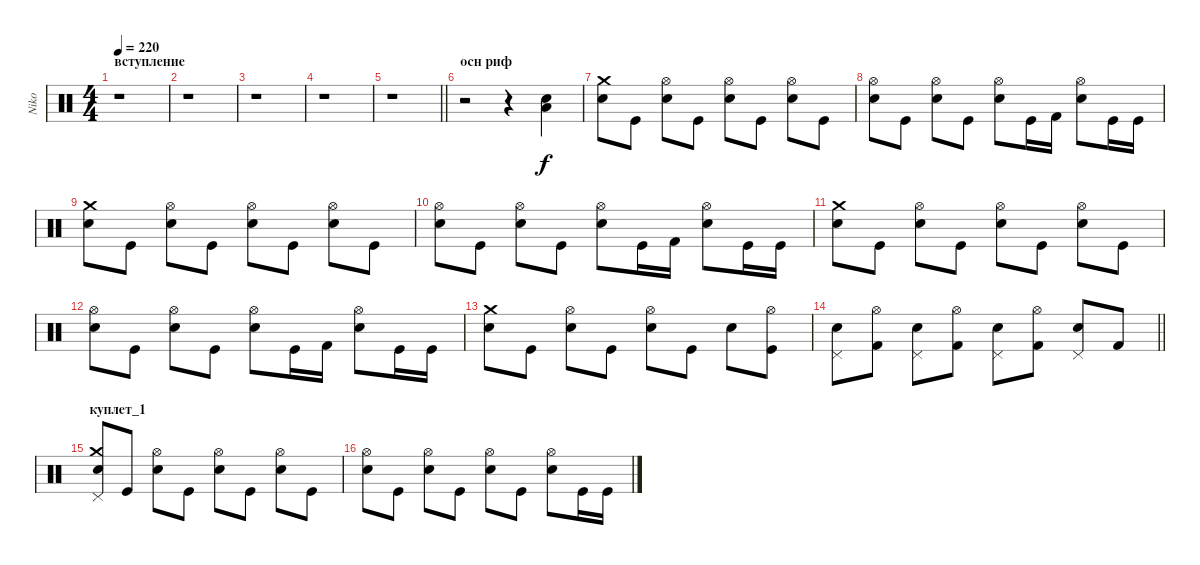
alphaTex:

\track ("Niko" "Niko") {instrument percussion}
\staff {score}
\articulation defaults
\ts (4 4)
\section ("" "вступление")
\tempo 220
\clef neutral
\ks c
r.1{dy f} |
r.1 |
r.1 |
r.1 |
\barLineRight lightlight
r.1 |
\section ("" "осн риф")
r.2 r.4 ("Snare (hit) 2" "Low Floor Tom (hit)").4 |
("Crash medium (hit)" "Snare (hit) 2").8 "Kick (hit)".8 ("Hi-Hat (open)" "Snare (hit) 2").8 "Kick (hit)".8 ("Hi-Hat (open)" "Snare (hit) 2").8 "Kick (hit)".8 ("Hi-Hat (open)" "Snare (hit) 2").8 "Kick (hit)".8 |
("Hi-Hat (open)" "Snare (hit) 2").8 "Kick (hit)".8 ("Hi-Hat (open)" "Snare (hit) 2").8 "Kick (hit)".8 ("Hi-Hat (open)" "Snare (hit) 2").8 "Kick (hit)".16 "Kick (hit) 2".16 ("Hi-Hat (open)" "Snare (hit) 2").8 "Kick (hit)".16 "Kick (hit)".16 |
("Crash medium (hit)" "Snare (hit) 2").8 "Kick (hit)".8 ("Hi-Hat (open)" "Snare (hit) 2").8 "Kick (hit)".8 ("Hi-Hat (open)" "Snare (hit) 2").8 "Kick (hit)".8 ("Hi-Hat (open)" "Snare (hit) 2").8 "Kick (hit)".8 |
("Hi-Hat (open)" "Snare (hit) 2").8 "Kick (hit)".8 ("Hi-Hat (open)" "Snare (hit) 2").8 "Kick (hit)".8 ("Hi-Hat (open)" "Snare (hit) 2").8 "Kick (hit)".16 "Kick (hit) 2".16 ("Hi-Hat (open)" "Snare (hit) 2").8 "Kick (hit)".16 "Kick (hit)".16 |
("Crash medium (hit)" "Snare (hit) 2").8 "Kick (hit)".8 ("Hi-Hat (open)" "Snare (hit) 2").8 "Kick (hit)".8 ("Hi-Hat (open)" "Snare (hit) 2").8 "Kick (hit)".8 ("Hi-Hat (open)" "Snare (hit) 2").8 "Kick (hit)".8 |
("Hi-Hat (open)" "Snare (hit) 2").8 "Kick (hit)".8 ("Hi-Hat (open)" "Snare (hit) 2").8 "Kick (hit)".8 ("Hi-Hat (open)" "Snare (hit) 2").8 "Kick (hit)".16 "Kick (hit) 2".16 ("Hi-Hat (open)" "Snare (hit) 2").8 "Kick (hit)".16 "Kick (hit)".16 |
("Crash medium (hit)" "Snare (hit) 2").8 "Kick (hit)".8 ("Hi-Hat (open)" "Snare (hit) 2").8 "Kick (hit)".8 ("Hi-Hat (open)" "Snare (hit) 2").8 "Kick (hit)".8 "Snare (hit) 2".8 ("Hi-Hat (open)" "Kick (hit)").8 |
\barLineRight lightlight
("Snare (hit) 2" "Pedal Hi-Hat (hit)").8 ("Hi-Hat (open)" "Kick (hit) 2").8 ("Snare (hit) 2" "Pedal Hi-Hat (hit)").8 ("Hi-Hat (open)" "Kick (hit) 2").8 ("Snare (hit) 2" "Pedal Hi-Hat (hit)").8 ("Hi-Hat (open)" "Kick (hit) 2").8 ("Snare (hit) 2" "Pedal Hi-Hat (hit)").8 "Kick (hit) 2".8 |
\section ("" "куплет_1")
("Crash medium (hit)" "Snare (hit) 2" "Pedal Hi-Hat (hit)").8 "Kick (hit)".8 ("Hi-Hat (open)" "Snare (hit) 2").8 "Kick (hit)".8 ("Hi-Hat (open)" "Snare (hit) 2").8 "Kick (hit)".8 ("Hi-Hat (open)" "Snare (hit) 2").8 "Kick (hit)".8 |
("Hi-Hat (open)" "Snare (hit) 2").8 "Kick (hit)".8 ("Hi-Hat (open)" "Snare (hit) 2").8 "Kick (hit)".8 ("Hi-Hat (open)" "Snare (hit) 2").8 "Kick (hit)".8 ("Hi-Hat (open)" "Snare (hit) 2").8 "Kick (hit)".16 "Kick (hit)".16
